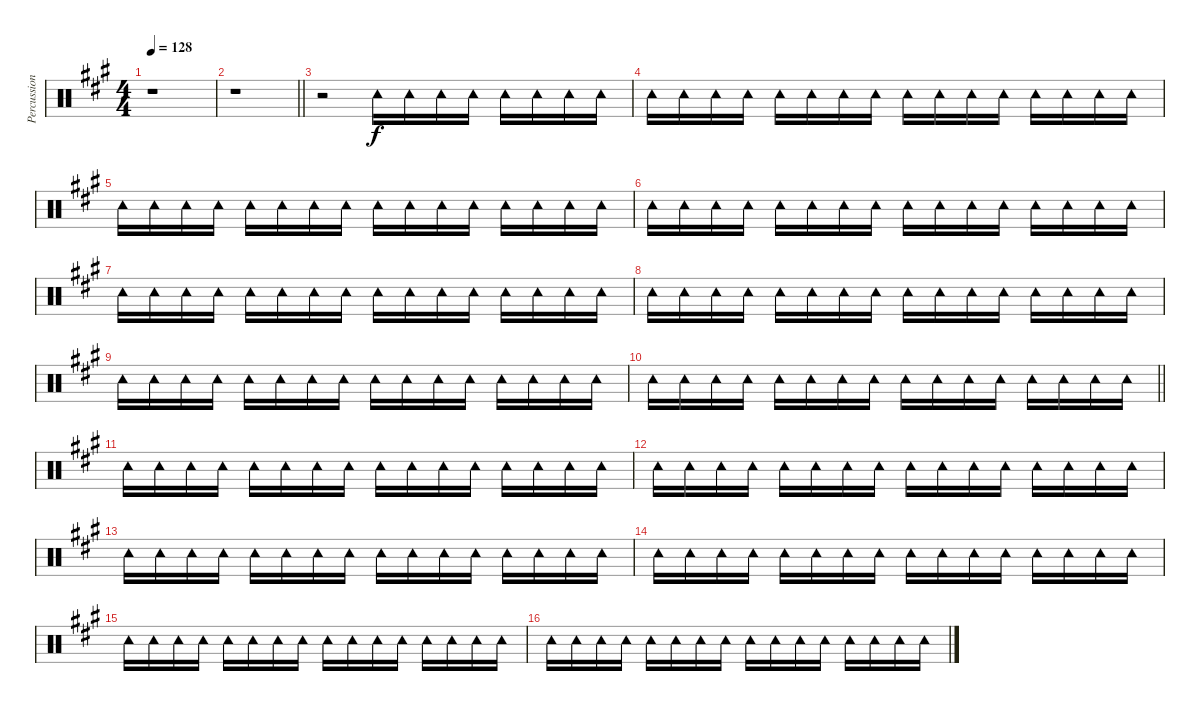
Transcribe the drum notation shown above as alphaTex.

\track ("Percussion" "Percussion") {instrument percussion}
\staff {score}
\articulation defaults
\ts (4 4)
\tempo 128
\clef neutral
\ks a
r.1{dy f} |
\barLineRight lightlight
r.1 |
r.2 "Tambourine (hit)".16 "Tambourine (hit)".16 "Tambourine (hit)".16 "Tambourine (hit)".16 "Tambourine (hit)".16 "Tambourine (hit)".16 "Tambourine (hit)".16 "Tambourine (hit)".16 |
"Tambourine (hit)".16 "Tambourine (hit)".16 "Tambourine (hit)".16 "Tambourine (hit)".16 "Tambourine (hit)".16 "Tambourine (hit)".16 "Tambourine (hit)".16 "Tambourine (hit)".16 "Tambourine (hit)".16 "Tambourine (hit)".16 "Tambourine (hit)".16 "Tambourine (hit)".16 "Tambourine (hit)".16 "Tambourine (hit)".16 "Tambourine (hit)".16 "Tambourine (hit)".16 |
"Tambourine (hit)".16 "Tambourine (hit)".16 "Tambourine (hit)".16 "Tambourine (hit)".16 "Tambourine (hit)".16 "Tambourine (hit)".16 "Tambourine (hit)".16 "Tambourine (hit)".16 "Tambourine (hit)".16 "Tambourine (hit)".16 "Tambourine (hit)".16 "Tambourine (hit)".16 "Tambourine (hit)".16 "Tambourine (hit)".16 "Tambourine (hit)".16 "Tambourine (hit)".16 |
"Tambourine (hit)".16 "Tambourine (hit)".16 "Tambourine (hit)".16 "Tambourine (hit)".16 "Tambourine (hit)".16 "Tambourine (hit)".16 "Tambourine (hit)".16 "Tambourine (hit)".16 "Tambourine (hit)".16 "Tambourine (hit)".16 "Tambourine (hit)".16 "Tambourine (hit)".16 "Tambourine (hit)".16 "Tambourine (hit)".16 "Tambourine (hit)".16 "Tambourine (hit)".16 |
"Tambourine (hit)".16 "Tambourine (hit)".16 "Tambourine (hit)".16 "Tambourine (hit)".16 "Tambourine (hit)".16 "Tambourine (hit)".16 "Tambourine (hit)".16 "Tambourine (hit)".16 "Tambourine (hit)".16 "Tambourine (hit)".16 "Tambourine (hit)".16 "Tambourine (hit)".16 "Tambourine (hit)".16 "Tambourine (hit)".16 "Tambourine (hit)".16 "Tambourine (hit)".16 |
"Tambourine (hit)".16 "Tambourine (hit)".16 "Tambourine (hit)".16 "Tambourine (hit)".16 "Tambourine (hit)".16 "Tambourine (hit)".16 "Tambourine (hit)".16 "Tambourine (hit)".16 "Tambourine (hit)".16 "Tambourine (hit)".16 "Tambourine (hit)".16 "Tambourine (hit)".16 "Tambourine (hit)".16 "Tambourine (hit)".16 "Tambourine (hit)".16 "Tambourine (hit)".16 |
"Tambourine (hit)".16 "Tambourine (hit)".16 "Tambourine (hit)".16 "Tambourine (hit)".16 "Tambourine (hit)".16 "Tambourine (hit)".16 "Tambourine (hit)".16 "Tambourine (hit)".16 "Tambourine (hit)".16 "Tambourine (hit)".16 "Tambourine (hit)".16 "Tambourine (hit)".16 "Tambourine (hit)".16 "Tambourine (hit)".16 "Tambourine (hit)".16 "Tambourine (hit)".16 |
\barLineRight lightlight "Tambourine (hit)".16 "Tambourine (hit)".16 "Tambourine (hit)".16 "Tambourine (hit)".16 "Tambourine (hit)".16 "Tambourine (hit)".16 "Tambourine (hit)".16 "Tambourine (hit)".16 "Tambourine (hit)".16 "Tambourine (hit)".16 "Tambourine (hit)".16 "Tambourine (hit)".16 "Tambourine (hit)".16 "Tambourine (hit)".16 "Tambourine (hit)".16 "Tambourine (hit)".16
|
"Tambourine (hit)".16 "Tambourine (hit)".16 "Tambourine (hit)".16 "Tambourine (hit)".16 "Tambourine (hit)".16 "Tambourine (hit)".16 "Tambourine (hit)".16 "Tambourine (hit)".16 "Tambourine (hit)".16 "Tambourine (hit)".16 "Tambourine (hit)".16 "Tambourine (hit)".16 "Tambourine (hit)".16 "Tambourine (hit)".16 "Tambourine (hit)".16 "Tambourine (hit)".16 |
"Tambourine (hit)".16 "Tambourine (hit)".16 "Tambourine (hit)".16 "Tambourine (hit)".16 "Tambourine (hit)".16 "Tambourine (hit)".16 "Tambourine (hit)".16 "Tambourine (hit)".16 "Tambourine (hit)".16 "Tambourine (hit)".16 "Tambourine (hit)".16 "Tambourine (hit)".16 "Tambourine (hit)".16 "Tambourine (hit)".16 "Tambourine (hit)".16 "Tambourine (hit)".16 |
"Tambourine (hit)".16 "Tambourine (hit)".16 "Tambourine (hit)".16 "Tambourine (hit)".16 "Tambourine (hit)".16 "Tambourine (hit)".16 "Tambourine (hit)".16 "Tambourine (hit)".16 "Tambourine (hit)".16 "Tambourine (hit)".16 "Tambourine (hit)".16 "Tambourine (hit)".16 "Tambourine (hit)".16 "Tambourine (hit)".16 "Tambourine (hit)".16 "Tambourine (hit)".16 |
"Tambourine (hit)".16 "Tambourine (hit)".16 "Tambourine (hit)".16 "Tambourine (hit)".16 "Tambourine (hit)".16 "Tambourine (hit)".16 "Tambourine (hit)".16 "Tambourine (hit)".16 "Tambourine (hit)".16 "Tambourine (hit)".16 "Tambourine (hit)".16 "Tambourine (hit)".16 "Tambourine (hit)".16 "Tambourine (hit)".16 "Tambourine (hit)".16 "Tambourine (hit)".16 |
"Tambourine (hit)".16 "Tambourine (hit)".16 "Tambourine (hit)".16 "Tambourine (hit)".16 "Tambourine (hit)".16 "Tambourine (hit)".16 "Tambourine (hit)".16 "Tambourine (hit)".16 "Tambourine (hit)".16 "Tambourine (hit)".16 "Tambourine (hit)".16 "Tambourine (hit)".16 "Tambourine (hit)".16 "Tambourine (hit)".16 "Tambourine (hit)".16 "Tambourine (hit)".16 |
"Tambourine (hit)".16 "Tambourine (hit)".16 "Tambourine (hit)".16 "Tambourine (hit)".16 "Tambourine (hit)".16 "Tambourine (hit)".16 "Tambourine (hit)".16 "Tambourine (hit)".16 "Tambourine (hit)".16 "Tambourine (hit)".16 "Tambourine (hit)".16 "Tambourine (hit)".16 "Tambourine (hit)".16 "Tambourine (hit)".16 "Tambourine (hit)".16 "Tambourine (hit)".16
